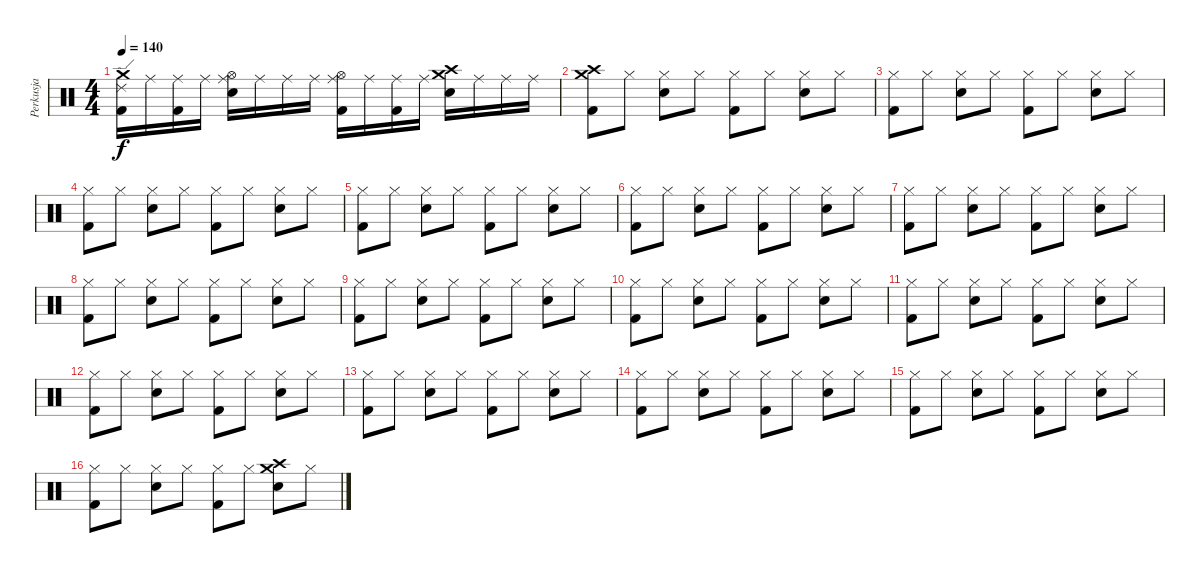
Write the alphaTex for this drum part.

\track ("Perkusja" "Perkusja") {instrument percussion}
\staff {score}
\articulation defaults
\ts (4 4)
\tempo 140
\clef neutral
\ks c
("Crash medium (hit)" "Ride (edge) 2" "Kick (hit) 2").16{dy f} "Ride (middle)".16 ("Ride (middle)" "Kick (hit) 2").16 "Ride (middle)".16 ("Ride (middle)" "Hi-Hat (open)" "Snare (hit) 2").16 "Ride (middle)".16 "Ride (middle)".16 "Ride (middle)".16 ("Ride (middle)" "Hi-Hat (open)" "Kick (hit) 2").16 "Ride (middle)".16 ("Ride (middle)" "Kick (hit) 2").16 "Ride (middle)".16 ("Crash high (hit)" "Crash medium (hit)" "Snare (hit) 2").16 "Ride (middle)".16 "Ride (middle)".16 "Ride (middle)".16 |
("Crash medium (hit)" "Crash high (hit)" "Kick (hit) 2").8 "Hi-Hat (closed)".8 ("Hi-Hat (closed)" "Snare (hit) 2").8 "Hi-Hat (closed)".8 ("Hi-Hat (closed)" "Kick (hit) 2").8 "Hi-Hat (closed)".8 ("Hi-Hat (closed)" "Snare (hit) 2").8 "Hi-Hat (closed)".8 |
("Hi-Hat (closed)" "Kick (hit) 2").8 "Hi-Hat (closed)".8 ("Hi-Hat (closed)" "Snare (hit) 2").8 "Hi-Hat (closed)".8 ("Hi-Hat (closed)" "Kick (hit) 2").8 "Hi-Hat (closed)".8 ("Hi-Hat (closed)" "Snare (hit) 2").8 "Hi-Hat (closed)".8 |
("Hi-Hat (closed)" "Kick (hit) 2").8 "Hi-Hat (closed)".8 ("Hi-Hat (closed)" "Snare (hit) 2").8 "Hi-Hat (closed)".8 ("Hi-Hat (closed)" "Kick (hit) 2").8 "Hi-Hat (closed)".8 ("Hi-Hat (closed)" "Snare (hit) 2").8 "Hi-Hat (closed)".8 |
("Hi-Hat (closed)" "Kick (hit) 2").8 "Hi-Hat (closed)".8 ("Hi-Hat (closed)" "Snare (hit) 2").8 "Hi-Hat (closed)".8 ("Hi-Hat (closed)" "Kick (hit) 2").8 "Hi-Hat (closed)".8 ("Hi-Hat (closed)" "Snare (hit) 2").8 "Hi-Hat (closed)".8 |
("Hi-Hat (closed)" "Kick (hit) 2").8 "Hi-Hat (closed)".8 ("Hi-Hat (closed)" "Snare (hit) 2").8 "Hi-Hat (closed)".8 ("Hi-Hat (closed)" "Kick (hit) 2").8 "Hi-Hat (closed)".8 ("Hi-Hat (closed)" "Snare (hit) 2").8 "Hi-Hat (closed)".8 |
("Hi-Hat (closed)" "Kick (hit) 2").8 "Hi-Hat (closed)".8 ("Hi-Hat (closed)" "Snare (hit) 2").8 "Hi-Hat (closed)".8 ("Hi-Hat (closed)" "Kick (hit) 2").8 "Hi-Hat (closed)".8 ("Hi-Hat (closed)" "Snare (hit) 2").8 "Hi-Hat (closed)".8 |
("Hi-Hat (closed)" "Kick (hit) 2").8 "Hi-Hat (closed)".8 ("Hi-Hat (closed)" "Snare (hit) 2").8 "Hi-Hat (closed)".8 ("Hi-Hat (closed)" "Kick (hit) 2").8 "Hi-Hat (closed)".8 ("Hi-Hat (closed)" "Snare (hit) 2").8 "Hi-Hat (closed)".8 |
("Hi-Hat (closed)" "Kick (hit) 2").8 "Hi-Hat (closed)".8 ("Hi-Hat (closed)" "Snare (hit) 2").8 "Hi-Hat (closed)".8 ("Hi-Hat (closed)" "Kick (hit) 2").8 "Hi-Hat (closed)".8 ("Hi-Hat (closed)" "Snare (hit) 2").8 "Hi-Hat (closed)".8 |
("Hi-Hat (closed)" "Kick (hit) 2").8 "Hi-Hat (closed)".8 ("Hi-Hat (closed)" "Snare (hit) 2").8 "Hi-Hat (closed)".8 ("Hi-Hat (closed)" "Kick (hit) 2").8 "Hi-Hat (closed)".8 ("Hi-Hat (closed)" "Snare (hit) 2").8 "Hi-Hat (closed)".8 |
("Hi-Hat (closed)" "Kick (hit) 2").8 "Hi-Hat (closed)".8 ("Hi-Hat (closed)" "Snare (hit) 2").8 "Hi-Hat (closed)".8 ("Hi-Hat (closed)" "Kick (hit) 2").8 "Hi-Hat (closed)".8 ("Hi-Hat (closed)" "Snare (hit) 2").8 "Hi-Hat (closed)".8 |
("Hi-Hat (closed)" "Kick (hit) 2").8 "Hi-Hat (closed)".8 ("Hi-Hat (closed)" "Snare (hit) 2").8 "Hi-Hat (closed)".8 ("Hi-Hat (closed)" "Kick (hit) 2").8 "Hi-Hat (closed)".8 ("Hi-Hat (closed)" "Snare (hit) 2").8 "Hi-Hat (closed)".8 |
("Hi-Hat (closed)" "Kick (hit) 2").8 "Hi-Hat (closed)".8 ("Hi-Hat (closed)" "Snare (hit) 2").8 "Hi-Hat (closed)".8 ("Hi-Hat (closed)" "Kick (hit) 2").8 "Hi-Hat (closed)".8 ("Hi-Hat (closed)" "Snare (hit) 2").8 "Hi-Hat (closed)".8 |
("Hi-Hat (closed)" "Kick (hit) 2").8 "Hi-Hat (closed)".8 ("Hi-Hat (closed)" "Snare (hit) 2").8 "Hi-Hat (closed)".8 ("Hi-Hat (closed)" "Kick (hit) 2").8 "Hi-Hat (closed)".8 ("Hi-Hat (closed)" "Snare (hit) 2").8 "Hi-Hat (closed)".8 |
("Hi-Hat (closed)" "Kick (hit) 2").8 "Hi-Hat (closed)".8 ("Hi-Hat (closed)" "Snare (hit) 2").8 "Hi-Hat (closed)".8 ("Hi-Hat (closed)" "Kick (hit) 2").8 "Hi-Hat (closed)".8 ("Hi-Hat (closed)" "Snare (hit) 2").8 "Hi-Hat (closed)".8 |
("Hi-Hat (closed)" "Kick (hit) 2").8 "Hi-Hat (closed)".8 ("Hi-Hat (closed)" "Snare (hit) 2").8 "Hi-Hat (closed)".8 ("Hi-Hat (closed)" "Kick (hit) 2").8 "Hi-Hat (closed)".8 ("Crash medium (hit)" "Crash high (hit)" "Snare (hit) 2").8 "Hi-Hat (closed)".8
